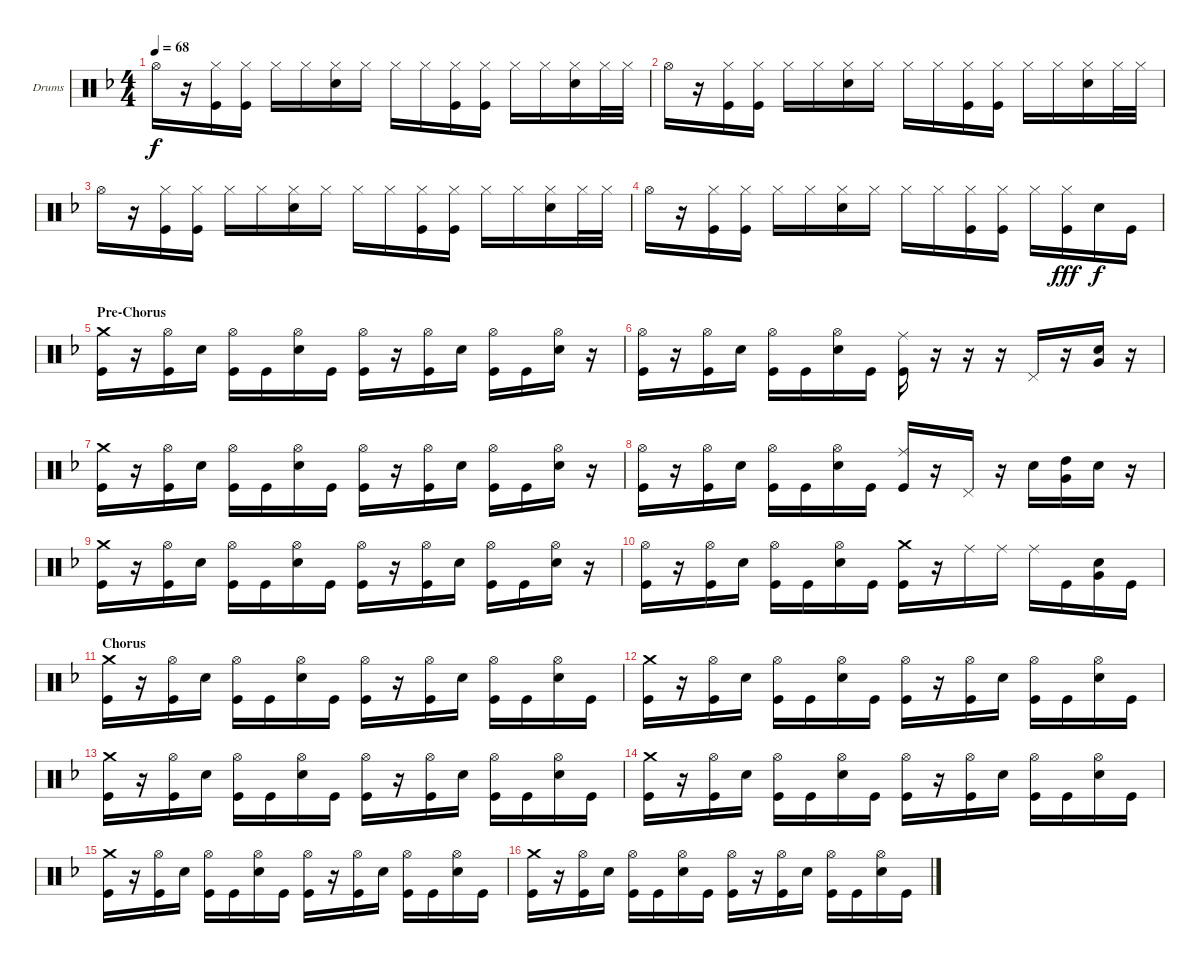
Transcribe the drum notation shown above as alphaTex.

\defaultSystemsLayout 4
\bracketExtendMode groupsimilarinstruments
\firstSystemTrackNameOrientation horizontal
\otherSystemsTrackNameOrientation horizontal
\track ("Drumkit" "Drums") {instrument percussion}
\staff {score}
\articulation defaults
\ts (4 4)
\tempo 68
\clef neutral
\ks f "Hi-Hat (open)".16{dy f}
r.16 ("Hi-Hat (closed)" "Kick (hit)").16 ("Hi-Hat (closed)" "Kick (hit)").16 "Hi-Hat (closed)".16 "Hi-Hat (closed)".16 ("Hi-Hat (closed)" "Snare (hit) 2").16 "Hi-Hat (closed)".16 "Hi-Hat (closed)".16 "Hi-Hat (closed)".16 ("Hi-Hat (closed)" "Kick (hit)").16 ("Hi-Hat (closed)" "Kick (hit)").16 "Hi-Hat (closed)".16 "Hi-Hat (closed)".16 ("Hi-Hat (closed)" "Snare (hit) 2").16 "Hi-Hat (closed)".32 "Hi-Hat (closed)".32 |
"Hi-Hat (open)".16 r.16 ("Hi-Hat (closed)" "Kick (hit)").16 ("Hi-Hat (closed)" "Kick (hit)").16 "Hi-Hat (closed)".16 "Hi-Hat (closed)".16 ("Hi-Hat (closed)" "Snare (hit) 2").16 "Hi-Hat (closed)".16 "Hi-Hat (closed)".16 "Hi-Hat (closed)".16 ("Hi-Hat (closed)" "Kick (hit)").16 ("Hi-Hat (closed)" "Kick (hit)").16 "Hi-Hat (closed)".16 "Hi-Hat (closed)".16 ("Hi-Hat (closed)" "Snare (hit) 2").16 "Hi-Hat (closed)".32 "Hi-Hat (closed)".32 |
"Hi-Hat (open)".16 r.16 ("Hi-Hat (closed)" "Kick (hit)").16 ("Hi-Hat (closed)" "Kick (hit)").16 "Hi-Hat (closed)".16 "Hi-Hat (closed)".16 ("Hi-Hat (closed)" "Snare (hit) 2").16 "Hi-Hat (closed)".16 "Hi-Hat (closed)".16 "Hi-Hat (closed)".16 ("Hi-Hat (closed)" "Kick (hit)").16 ("Hi-Hat (closed)" "Kick (hit)").16 "Hi-Hat (closed)".16 "Hi-Hat (closed)".16 ("Hi-Hat (closed)" "Snare (hit) 2").16 "Hi-Hat (closed)".32 "Hi-Hat (closed)".32 |
"Hi-Hat (open)".16 r.16 ("Hi-Hat (closed)" "Kick (hit)").16 ("Hi-Hat (closed)" "Kick (hit)").16 "Hi-Hat (closed)".16 "Hi-Hat (closed)".16 ("Hi-Hat (closed)" "Snare (hit) 2").16 "Hi-Hat (closed)".16 "Hi-Hat (closed)".16 "Hi-Hat (closed)".16 ("Hi-Hat (closed)" "Kick (hit)").16 ("Hi-Hat (closed)" "Kick (hit)").16 "Hi-Hat (closed)".16 ("Hi-Hat (closed)" "Kick (hit)").16{dy fff} "Snare (hit) 2".16{dy f} "Kick (hit)".16 |
\section ("" "Pre-Chorus")
("Crash medium (hit)" "Kick (hit)").16 r.16 ("Hi-Hat (open)" "Kick (hit)").16 "Snare (hit) 2".16 ("Hi-Hat (open)" "Kick (hit)").16 "Kick (hit)".16 ("Hi-Hat (open)" "Snare (hit) 2").16 "Kick (hit)".16 ("Hi-Hat (open)" "Kick (hit)").16 r.16 ("Hi-Hat (open)" "Kick (hit)").16 "Snare (hit) 2".16 ("Hi-Hat (open)" "Kick (hit)").16 "Kick (hit)".16 ("Hi-Hat (open)" "Snare (hit) 2").16 r.16 |
("Hi-Hat (open)" "Kick (hit)").16 r.16 ("Hi-Hat (open)" "Kick (hit)").16 "Snare (hit) 2".16 ("Hi-Hat (open)" "Kick (hit)").16 "Kick (hit)".16 ("Hi-Hat (open)" "Snare (hit) 2").16 "Kick (hit)".16 ("Ride (middle)" "Kick (hit)").16 r.16 r.16 r.16 "Pedal Hi-Hat (hit)".16 r.16 ("Snare (hit) 2" "Very Low Tom (hit)").16 r.16 |
("Crash medium (hit)" "Kick (hit)").16 r.16 ("Hi-Hat (open)" "Kick (hit)").16 "Snare (hit) 2".16 ("Hi-Hat (open)" "Kick (hit)").16 "Kick (hit)".16 ("Hi-Hat (open)" "Snare (hit) 2").16 "Kick (hit)".16 ("Hi-Hat (open)" "Kick (hit)").16 r.16 ("Hi-Hat (open)" "Kick (hit)").16 "Snare (hit) 2".16 ("Hi-Hat (open)" "Kick (hit)").16 "Kick (hit)".16 ("Hi-Hat (open)" "Snare (hit) 2").16 r.16 |
("Hi-Hat (open)" "Kick (hit)").16 r.16 ("Hi-Hat (open)" "Kick (hit)").16 "Snare (hit) 2".16 ("Hi-Hat (open)" "Kick (hit)").16 "Kick (hit)".16 ("Hi-Hat (open)" "Snare (hit) 2").16 "Kick (hit)".16 ("Ride (middle)" "Kick (hit)").16 r.16 "Pedal Hi-Hat (hit)".16 r.16 "Snare (hit) 2".16 ("High Tom (hit)" "Very Low Tom (hit)").16 "Snare (hit) 2".16 r.16 |
("Crash medium (hit)" "Kick (hit)").16 r.16 ("Hi-Hat (open)" "Kick (hit)").16 "Snare (hit) 2".16 ("Hi-Hat (open)" "Kick (hit)").16 "Kick (hit)".16 ("Hi-Hat (open)" "Snare (hit) 2").16 "Kick (hit)".16 ("Hi-Hat (open)" "Kick (hit)").16 r.16 ("Hi-Hat (open)" "Kick (hit)").16 "Snare (hit) 2".16 ("Hi-Hat (open)" "Kick (hit)").16 "Kick (hit)".16 ("Hi-Hat (open)" "Snare (hit) 2").16 r.16 |
("Hi-Hat (open)" "Kick (hit)").16 r.16 ("Hi-Hat (open)" "Kick (hit)").16 "Snare (hit) 2".16 ("Hi-Hat (open)" "Kick (hit)").16 "Kick (hit)".16 ("Hi-Hat (open)" "Snare (hit) 2").16 "Kick (hit)".16 ("Crash medium (hit)" "Kick (hit)").16 r.16 "Ride (middle)".16 "Ride (middle)".16 "Ride (middle)".16 "Kick (hit)".16 ("Snare (hit) 2" "Very Low Tom (hit)").16 "Kick (hit)".16 |
\section ("" "Chorus")
("Crash medium (hit)" "Kick (hit)").16 r.16 ("Hi-Hat (open)" "Kick (hit)").16 "Snare (hit) 2".16 ("Hi-Hat (open)" "Kick (hit)").16 "Kick (hit)".16 ("Hi-Hat (open)" "Snare (hit) 2").16 "Kick (hit)".16 ("Hi-Hat (open)" "Kick (hit)").16 r.16 ("Hi-Hat (open)" "Kick (hit)").16 "Snare (hit) 2".16 ("Hi-Hat (open)" "Kick (hit)").16 "Kick (hit)".16 ("Hi-Hat (open)" "Snare (hit) 2").16 "Kick (hit)".16 |
("Crash medium (hit)" "Kick (hit)").16 r.16 ("Hi-Hat (open)" "Kick (hit)").16 "Snare (hit) 2".16 ("Hi-Hat (open)" "Kick (hit)").16 "Kick (hit)".16 ("Hi-Hat (open)" "Snare (hit) 2").16 "Kick (hit)".16 ("Hi-Hat (open)" "Kick (hit)").16 r.16 ("Hi-Hat (open)" "Kick (hit)").16 "Snare (hit) 2".16 ("Hi-Hat (open)" "Kick (hit)").16 "Kick (hit)".16 ("Hi-Hat (open)" "Snare (hit) 2").16 "Kick (hit)".16 |
("Crash medium (hit)" "Kick (hit)").16 r.16 ("Hi-Hat (open)" "Kick (hit)").16 "Snare (hit) 2".16 ("Hi-Hat (open)" "Kick (hit)").16 "Kick (hit)".16 ("Hi-Hat (open)" "Snare (hit) 2").16 "Kick (hit)".16 ("Hi-Hat (open)" "Kick (hit)").16 r.16 ("Hi-Hat (open)" "Kick (hit)").16 "Snare (hit) 2".16 ("Hi-Hat (open)" "Kick (hit)").16 "Kick (hit)".16 ("Hi-Hat (open)" "Snare (hit) 2").16 "Kick (hit)".16 |
("Crash medium (hit)" "Kick (hit)").16 r.16 ("Hi-Hat (open)" "Kick (hit)").16 "Snare (hit) 2".16 ("Hi-Hat (open)" "Kick (hit)").16 "Kick (hit)".16 ("Hi-Hat (open)" "Snare (hit) 2").16 "Kick (hit)".16 ("Hi-Hat (open)" "Kick (hit)").16 r.16 ("Hi-Hat (open)" "Kick (hit)").16 "Snare (hit) 2".16 ("Hi-Hat (open)" "Kick (hit)").16 "Kick (hit)".16 ("Hi-Hat (open)" "Snare (hit) 2").16 "Kick (hit)".16 |
("Crash medium (hit)" "Kick (hit)").16 r.16 ("Hi-Hat (open)" "Kick (hit)").16 "Snare (hit) 2".16 ("Hi-Hat (open)" "Kick (hit)").16 "Kick (hit)".16 ("Hi-Hat (open)" "Snare (hit) 2").16 "Kick (hit)".16 ("Hi-Hat (open)" "Kick (hit)").16 r.16 ("Hi-Hat (open)" "Kick (hit)").16 "Snare (hit) 2".16 ("Hi-Hat (open)" "Kick (hit)").16 "Kick (hit)".16 ("Hi-Hat (open)" "Snare (hit) 2").16 "Kick (hit)".16 |
("Crash medium (hit)" "Kick (hit)").16 r.16 ("Hi-Hat (open)" "Kick (hit)").16 "Snare (hit) 2".16 ("Hi-Hat (open)" "Kick (hit)").16 "Kick (hit)".16 ("Hi-Hat (open)" "Snare (hit) 2").16 "Kick (hit)".16 ("Hi-Hat (open)" "Kick (hit)").16 r.16 ("Hi-Hat (open)" "Kick (hit)").16 "Snare (hit) 2".16 ("Hi-Hat (open)" "Kick (hit)").16 "Kick (hit)".16 ("Hi-Hat (open)" "Snare (hit) 2").16 "Kick (hit)".16
